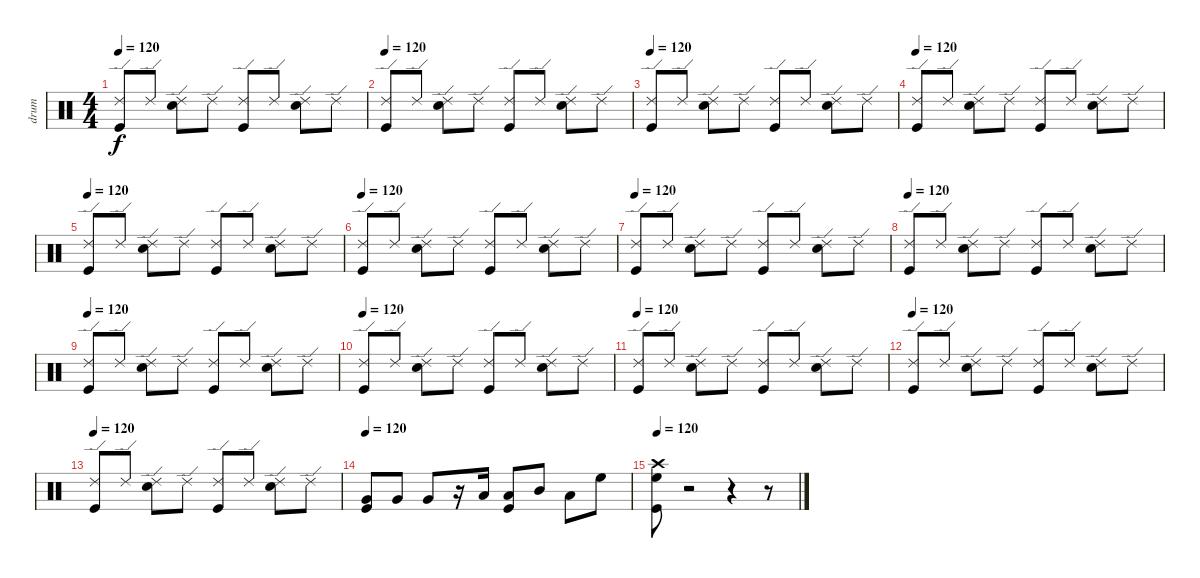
\track ("drum" "drum") {instrument percussion}
\staff {score}
\articulation defaults
\ts (4 4)
\tempo 120
\clef neutral
\ks c
("Kick (hit)" "Ride (edge) 2").8{dy f} "Ride (edge) 2".8 ("Ride (edge) 2" "Electric Snare (hit)").8 "Ride (edge) 2".8 ("Kick (hit)" "Ride (edge) 2").8 "Ride (edge) 2".8 ("Electric Snare (hit)" "Ride (edge) 2").8 "Ride (edge) 2".8 |
\tempo 120
("Kick (hit)" "Ride (edge) 2").8 "Ride (edge) 2".8 ("Ride (edge) 2" "Electric Snare (hit)").8 "Ride (edge) 2".8 ("Kick (hit)" "Ride (edge) 2").8 "Ride (edge) 2".8 ("Electric Snare (hit)" "Ride (edge) 2").8 "Ride (edge) 2".8 |
\tempo 120
("Kick (hit)" "Ride (edge) 2").8 "Ride (edge) 2".8 ("Ride (edge) 2" "Electric Snare (hit)").8 "Ride (edge) 2".8 ("Kick (hit)" "Ride (edge) 2").8 "Ride (edge) 2".8 ("Electric Snare (hit)" "Ride (edge) 2").8 "Ride (edge) 2".8 |
\tempo 120
("Kick (hit)" "Ride (edge) 2").8 "Ride (edge) 2".8 ("Ride (edge) 2" "Electric Snare (hit)").8 "Ride (edge) 2".8 ("Kick (hit)" "Ride (edge) 2").8 "Ride (edge) 2".8 ("Electric Snare (hit)" "Ride (edge) 2").8 "Ride (edge) 2".8 |
\tempo 120
("Kick (hit)" "Ride (edge) 2").8 "Ride (edge) 2".8 ("Ride (edge) 2" "Electric Snare (hit)").8 "Ride (edge) 2".8 ("Kick (hit)" "Ride (edge) 2").8 "Ride (edge) 2".8 ("Electric Snare (hit)" "Ride (edge) 2").8 "Ride (edge) 2".8 |
\tempo 120
("Kick (hit)" "Ride (edge) 2").8 "Ride (edge) 2".8 ("Ride (edge) 2" "Electric Snare (hit)").8 "Ride (edge) 2".8 ("Kick (hit)" "Ride (edge) 2").8 "Ride (edge) 2".8 ("Electric Snare (hit)" "Ride (edge) 2").8 "Ride (edge) 2".8 |
\tempo 120
("Kick (hit)" "Ride (edge) 2").8 "Ride (edge) 2".8 ("Ride (edge) 2" "Electric Snare (hit)").8 "Ride (edge) 2".8 ("Kick (hit)" "Ride (edge) 2").8 "Ride (edge) 2".8 ("Electric Snare (hit)" "Ride (edge) 2").8 "Ride (edge) 2".8 |
\tempo 120
("Kick (hit)" "Ride (edge) 2").8 "Ride (edge) 2".8 ("Ride (edge) 2" "Electric Snare (hit)").8 "Ride (edge) 2".8 ("Kick (hit)" "Ride (edge) 2").8 "Ride (edge) 2".8 ("Electric Snare (hit)" "Ride (edge) 2").8 "Ride (edge) 2".8 |
\tempo 120
("Kick (hit)" "Ride (edge) 2").8 "Ride (edge) 2".8 ("Ride (edge) 2" "Electric Snare (hit)").8 "Ride (edge) 2".8 ("Kick (hit)" "Ride (edge) 2").8 "Ride (edge) 2".8 ("Electric Snare (hit)" "Ride (edge) 2").8 "Ride (edge) 2".8 |
\tempo 120
("Kick (hit)" "Ride (edge) 2").8 "Ride (edge) 2".8 ("Ride (edge) 2" "Electric Snare (hit)").8 "Ride (edge) 2".8 ("Kick (hit)" "Ride (edge) 2").8 "Ride (edge) 2".8 ("Electric Snare (hit)" "Ride (edge) 2").8 "Ride (edge) 2".8 |
\tempo 120
("Kick (hit)" "Ride (edge) 2").8 "Ride (edge) 2".8 ("Ride (edge) 2" "Electric Snare (hit)").8 "Ride (edge) 2".8 ("Kick (hit)" "Ride (edge) 2").8 "Ride (edge) 2".8 ("Electric Snare (hit)" "Ride (edge) 2").8 "Ride (edge) 2".8 |
\tempo 120
("Kick (hit)" "Ride (edge) 2").8 "Ride (edge) 2".8 ("Ride (edge) 2" "Electric Snare (hit)").8 "Ride (edge) 2".8 ("Kick (hit)" "Ride (edge) 2").8 "Ride (edge) 2".8 ("Electric Snare (hit)" "Ride (edge) 2").8 "Ride (edge) 2".8 |
\tempo 120
("Kick (hit)" "Ride (edge) 2").8 "Ride (edge) 2".8 ("Ride (edge) 2" "Electric Snare (hit)").8 "Ride (edge) 2".8 ("Kick (hit)" "Ride (edge) 2").8 "Ride (edge) 2".8 ("Electric Snare (hit)" "Ride (edge) 2").8 "Ride (edge) 2".8 |
\tempo 120
("Kick (hit)" "Very Low Tom (hit)").8 "Very Low Tom (hit)".8 "Very Low Tom (hit)".8 r.16 "Low Tom (hit)".16 ("Kick (hit)" "Low Tom (hit)").8 "Mid Tom (hit)".8 "Low Tom (hit)".8 "High Floor Tom (hit)".8 |
\tempo 120
("Kick (hit)" "High Floor Tom (hit)" "Crash high (hit)").8 r.2 r.4 r.8
